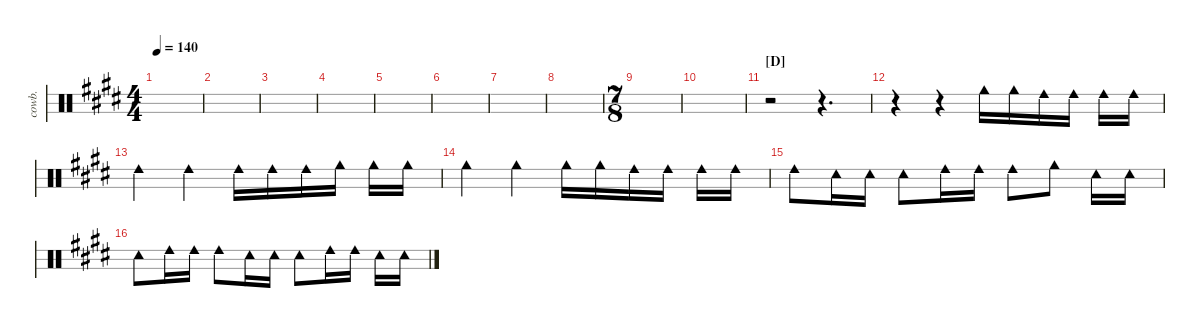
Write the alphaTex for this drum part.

\defaultSystemsLayout 4
\hideDynamics
\bracketExtendMode nobrackets
\track ("Cowbell" "cowb.") {instrument percussion}
\staff {score 3}
\articulation defaults
\ts (4 4)
\tempo 140
\clef neutral
\ks e
|
|
|
|
|
|
|
|
\ts (7 8)
\beaming (8 3 2 2)
|
|
\section ("D" "")
r.2 r.4{d} |
r.4 r.4 "Cowbell high (hit)"{acc forcenatural}.16 "Cowbell high (hit)"{acc forcenatural}.16{beam merge} "Cowbell medium (hit)"{acc forcenatural}.16 "Cowbell medium (hit)"{acc forcenatural}.16{beam split} "Cowbell medium (hit)"{acc forcenatural}.16 "Cowbell medium (hit)"{acc forcenatural}.16 |
"Cowbell medium (hit)"{acc forcenatural}.4 "Cowbell medium (hit)"{acc forcenatural}.4 "Cowbell medium (hit)"{acc forcenatural}.16 "Cowbell medium (hit)"{acc forcenatural}.16{beam merge} "Cowbell medium (hit)"{acc forcenatural}.16{beam merge} "Cowbell high (hit)"{acc forcenatural}.16{beam split} "Cowbell high (hit)"{acc forcenatural}.16 "Cowbell high (hit)"{acc forcenatural}.16 |
"Cowbell high (hit)"{acc forcenatural}.4 "Cowbell high (hit)"{acc forcenatural}.4 "Cowbell high (hit)"{acc forcenatural}.16 "Cowbell high (hit)"{acc forcenatural}.16{beam merge} "Cowbell medium (hit)"{acc forcenatural}.16 "Cowbell medium (hit)"{acc forcenatural}.16{beam split} "Cowbell medium (hit)"{acc forcenatural}.16 "Cowbell medium (hit)"{acc forcenatural}.16 |
"Cowbell medium (hit)"{acc forcenatural}.8 "Cowbell low (hit)"{acc forcenatural}.16 "Cowbell low (hit)"{acc forcenatural}.16{beam split} "Cowbell low (hit)"{acc forcenatural}.8{beam merge} "Cowbell medium (hit)"{acc forcenatural}.16 "Cowbell medium (hit)"{acc forcenatural}.16{beam split} "Cowbell medium (hit)"{acc forcenatural}.8{beam merge} "Cowbell high (hit)"{acc forcenatural}.8{beam split} "Cowbell low (hit)"{acc forcenatural}.16 "Cowbell low (hit)"{acc forcenatural}.16 |
"Cowbell low (hit)"{acc forcenatural}.8 "Cowbell medium (hit)"{acc forcenatural}.16 "Cowbell medium (hit)"{acc forcenatural}.16{beam split} "Cowbell medium (hit)"{acc forcenatural}.8{beam merge} "Cowbell low (hit)"{acc forcenatural}.16 "Cowbell low (hit)"{acc forcenatural}.16{beam split} "Cowbell low (hit)"{acc forcenatural}.8{beam merge} "Cowbell medium (hit)"{acc forcenatural}.16 "Cowbell medium (hit)"{acc forcenatural}.16{beam split} "Cowbell low (hit)"{acc forcenatural}.16 "Cowbell low (hit)"{acc forcenatural}.16
